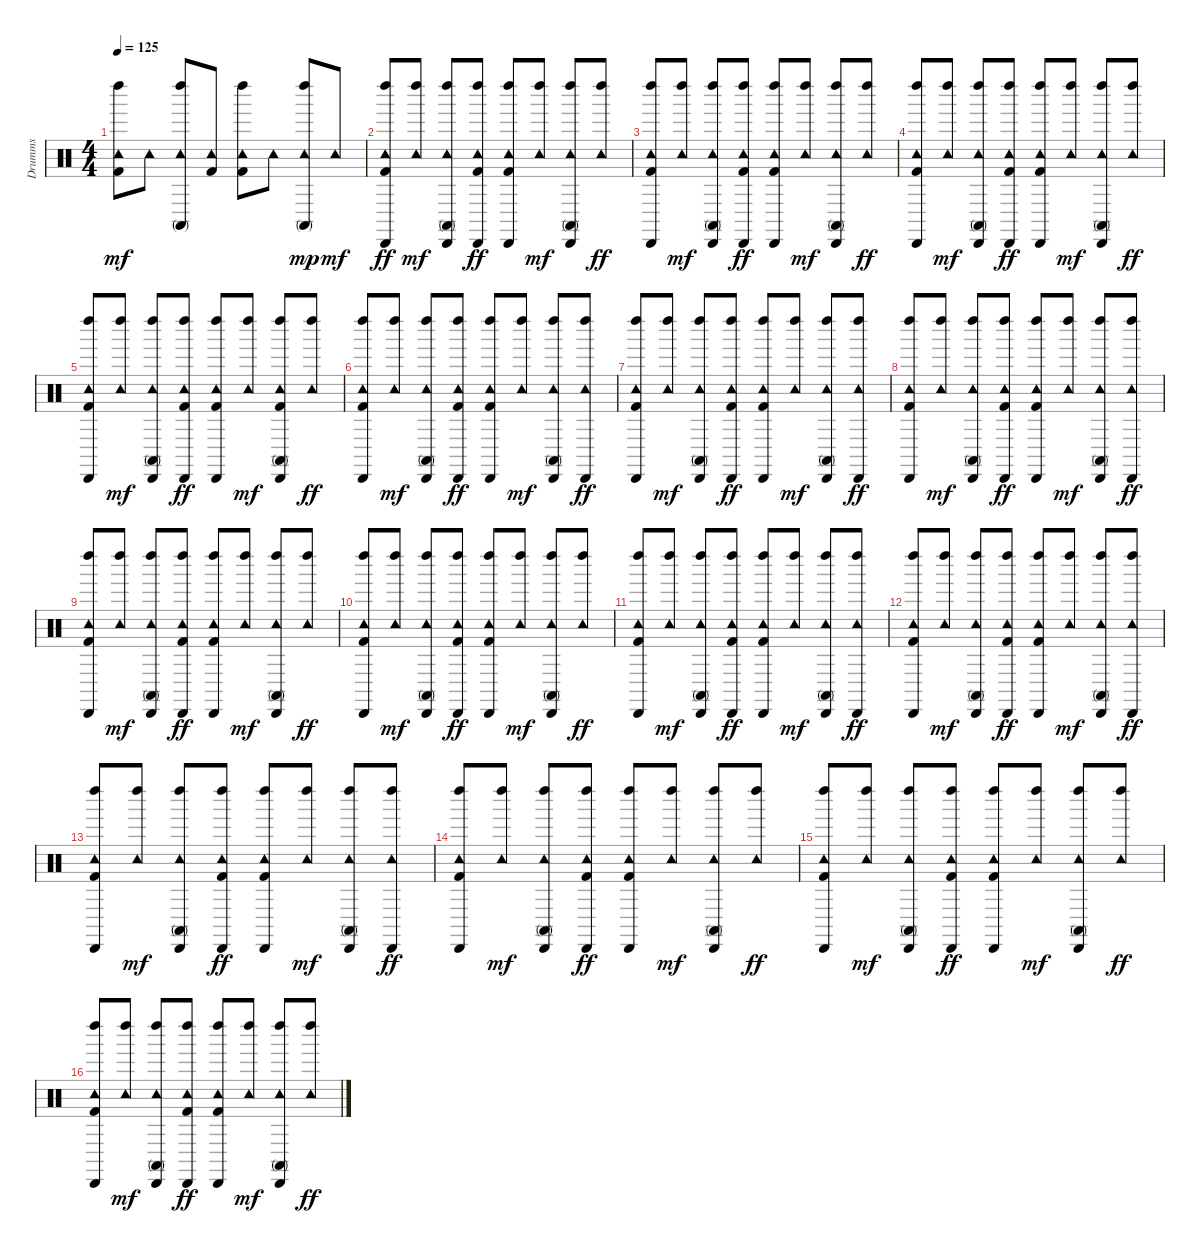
\track ("Drumms" "Drumms") {instrument percussion}
\staff {score}
\articulation defaults
\ts (4 4)
\tempo 125
\clef neutral
\ks c
("Kick (hit) 2" "Tambourine (hit)" "Left Maraca (hit)").8{dy mf} "Tambourine (hit)".8 ("Conga high (mute)" "Tambourine (hit)" "Left Maraca (hit)").8 ("Kick (hit) 2" "Tambourine (hit)").8 ("Kick (hit) 2" "Tambourine (hit)" "Left Maraca (hit)").8 "Tambourine (hit)".8 ("Conga high (mute)" "Tambourine (hit)" "Left Maraca (hit)").8{dy mp} "Tambourine (hit)".8{dy mf} |
("Kick (hit) 2" "Tambourine (hit)" "Cabasa (hit)" "Left Maraca (hit)").8{dy ff} ("Tambourine (hit)" "Left Maraca (hit)").8{dy mf} ("Conga high (mute)" "Tambourine (hit)" "Cabasa (hit)" "Left Maraca (hit)").8 ("Kick (hit) 2" "Tambourine (hit)" "Cabasa (hit)" "Left Maraca (hit)").8{dy ff} ("Kick (hit) 2" "Tambourine (hit)" "Cabasa (hit)" "Left Maraca (hit)").8 ("Tambourine (hit)" "Left Maraca (hit)").8{dy mf} ("Conga high (mute)" "Tambourine (hit)" "Cabasa (hit)" "Left Maraca (hit)").8 ("Tambourine (hit)" "Left Maraca (hit)").8{dy ff} |
("Kick (hit) 2" "Tambourine (hit)" "Cabasa (hit)" "Left Maraca (hit)").8 ("Tambourine (hit)" "Left Maraca (hit)").8{dy mf} ("Conga high (mute)" "Tambourine (hit)" "Cabasa (hit)" "Left Maraca (hit)").8 ("Kick (hit) 2" "Tambourine (hit)" "Cabasa (hit)" "Left Maraca (hit)").8{dy ff} ("Kick (hit) 2" "Tambourine (hit)" "Cabasa (hit)" "Left Maraca (hit)").8 ("Tambourine (hit)" "Left Maraca (hit)").8{dy mf} ("Conga high (mute)" "Tambourine (hit)" "Cabasa (hit)" "Left Maraca (hit)").8 ("Tambourine (hit)" "Left Maraca (hit)").8{dy ff} |
("Kick (hit) 2" "Tambourine (hit)" "Cabasa (hit)" "Left Maraca (hit)").8 ("Tambourine (hit)" "Left Maraca (hit)").8{dy mf} ("Conga high (mute)" "Tambourine (hit)" "Cabasa (hit)" "Left Maraca (hit)").8 ("Kick (hit) 2" "Tambourine (hit)" "Cabasa (hit)" "Left Maraca (hit)").8{dy ff} ("Kick (hit) 2" "Tambourine (hit)" "Cabasa (hit)" "Left Maraca (hit)").8 ("Tambourine (hit)" "Left Maraca (hit)").8{dy mf} ("Conga high (mute)" "Tambourine (hit)" "Cabasa (hit)" "Left Maraca (hit)").8 ("Tambourine (hit)" "Left Maraca (hit)").8{dy ff} |
("Kick (hit) 2" "Tambourine (hit)" "Cabasa (hit)" "Left Maraca (hit)").8 ("Tambourine (hit)" "Left Maraca (hit)").8{dy mf} ("Conga high (mute)" "Tambourine (hit)" "Cabasa (hit)" "Left Maraca (hit)").8 ("Kick (hit) 2" "Tambourine (hit)" "Cabasa (hit)" "Left Maraca (hit)").8{dy ff} ("Kick (hit) 2" "Tambourine (hit)" "Cabasa (hit)" "Left Maraca (hit)").8 ("Tambourine (hit)" "Left Maraca (hit)").8{dy mf} ("Conga high (mute)" "Tambourine (hit)" "Cabasa (hit)" "Left Maraca (hit)" "Kick (hit) 2").8 ("Tambourine (hit)" "Left Maraca (hit)").8{dy ff} |
("Kick (hit) 2" "Tambourine (hit)" "Cabasa (hit)" "Left Maraca (hit)").8 ("Tambourine (hit)" "Left Maraca (hit)").8{dy mf} ("Conga high (mute)" "Tambourine (hit)" "Cabasa (hit)" "Left Maraca (hit)").8 ("Kick (hit) 2" "Tambourine (hit)" "Cabasa (hit)" "Left Maraca (hit)").8{dy ff} ("Kick (hit) 2" "Tambourine (hit)" "Cabasa (hit)" "Left Maraca (hit)").8 ("Tambourine (hit)" "Left Maraca (hit)").8{dy mf} ("Conga high (mute)" "Tambourine (hit)" "Cabasa (hit)" "Left Maraca (hit)").8 ("Tambourine (hit)" "Left Maraca (hit)" "Cabasa (hit)").8{dy ff} |
("Kick (hit) 2" "Tambourine (hit)" "Cabasa (hit)" "Left Maraca (hit)").8 ("Tambourine (hit)" "Left Maraca (hit)").8{dy mf} ("Conga high (mute)" "Tambourine (hit)" "Cabasa (hit)" "Left Maraca (hit)").8 ("Kick (hit) 2" "Tambourine (hit)" "Cabasa (hit)" "Left Maraca (hit)").8{dy ff} ("Kick (hit) 2" "Tambourine (hit)" "Cabasa (hit)" "Left Maraca (hit)").8 ("Tambourine (hit)" "Left Maraca (hit)").8{dy mf} ("Conga high (mute)" "Tambourine (hit)" "Cabasa (hit)" "Left Maraca (hit)").8 ("Tambourine (hit)" "Left Maraca (hit)" "Cabasa (hit)").8{dy ff} |
("Kick (hit) 2" "Tambourine (hit)" "Cabasa (hit)" "Left Maraca (hit)").8 ("Tambourine (hit)" "Left Maraca (hit)").8{dy mf} ("Conga high (mute)" "Tambourine (hit)" "Cabasa (hit)" "Left Maraca (hit)").8 ("Kick (hit) 2" "Tambourine (hit)" "Cabasa (hit)" "Left Maraca (hit)").8{dy ff} ("Kick (hit) 2" "Tambourine (hit)" "Cabasa (hit)" "Left Maraca (hit)").8 ("Tambourine (hit)" "Left Maraca (hit)").8{dy mf} ("Conga high (mute)" "Tambourine (hit)" "Cabasa (hit)" "Left Maraca (hit)").8 ("Tambourine (hit)" "Left Maraca (hit)" "Cabasa (hit)").8{dy ff} |
("Kick (hit) 2" "Tambourine (hit)" "Cabasa (hit)" "Left Maraca (hit)").8 ("Tambourine (hit)" "Left Maraca (hit)").8{dy mf} ("Conga high (mute)" "Tambourine (hit)" "Cabasa (hit)" "Left Maraca (hit)").8 ("Kick (hit) 2" "Tambourine (hit)" "Cabasa (hit)" "Left Maraca (hit)").8{dy ff} ("Kick (hit) 2" "Tambourine (hit)" "Cabasa (hit)" "Left Maraca (hit)").8 ("Tambourine (hit)" "Left Maraca (hit)").8{dy mf} ("Conga high (mute)" "Tambourine (hit)" "Cabasa (hit)" "Left Maraca (hit)").8 ("Tambourine (hit)" "Left Maraca (hit)").8{dy ff} |
("Kick (hit) 2" "Tambourine (hit)" "Cabasa (hit)" "Left Maraca (hit)").8 ("Tambourine (hit)" "Left Maraca (hit)").8{dy mf} ("Conga high (mute)" "Tambourine (hit)" "Cabasa (hit)" "Left Maraca (hit)").8 ("Kick (hit) 2" "Tambourine (hit)" "Cabasa (hit)" "Left Maraca (hit)").8{dy ff} ("Kick (hit) 2" "Tambourine (hit)" "Cabasa (hit)" "Left Maraca (hit)").8 ("Tambourine (hit)" "Left Maraca (hit)").8{dy mf} ("Conga high (mute)" "Tambourine (hit)" "Cabasa (hit)" "Left Maraca (hit)").8 ("Tambourine (hit)" "Left Maraca (hit)").8{dy ff} |
("Kick (hit) 2" "Tambourine (hit)" "Cabasa (hit)" "Left Maraca (hit)").8 ("Tambourine (hit)" "Left Maraca (hit)").8{dy mf} ("Conga high (mute)" "Tambourine (hit)" "Cabasa (hit)" "Left Maraca (hit)").8 ("Kick (hit) 2" "Tambourine (hit)" "Cabasa (hit)" "Left Maraca (hit)").8{dy ff} ("Kick (hit) 2" "Tambourine (hit)" "Cabasa (hit)" "Left Maraca (hit)").8 ("Tambourine (hit)" "Left Maraca (hit)").8{dy mf} ("Conga high (mute)" "Tambourine (hit)" "Cabasa (hit)" "Left Maraca (hit)").8 ("Tambourine (hit)" "Left Maraca (hit)" "Cabasa (hit)").8{dy ff} |
("Kick (hit) 2" "Tambourine (hit)" "Cabasa (hit)" "Left Maraca (hit)").8 ("Tambourine (hit)" "Left Maraca (hit)").8{dy mf} ("Conga high (mute)" "Tambourine (hit)" "Cabasa (hit)" "Left Maraca (hit)").8 ("Kick (hit) 2" "Tambourine (hit)" "Cabasa (hit)" "Left Maraca (hit)").8{dy ff} ("Kick (hit) 2" "Tambourine (hit)" "Cabasa (hit)" "Left Maraca (hit)").8 ("Tambourine (hit)" "Left Maraca (hit)").8{dy mf} ("Conga high (mute)" "Tambourine (hit)" "Cabasa (hit)" "Left Maraca (hit)").8 ("Tambourine (hit)" "Left Maraca (hit)" "Cabasa (hit)").8{dy ff} |
("Kick (hit) 2" "Tambourine (hit)" "Cabasa (hit)" "Left Maraca (hit)").8 ("Tambourine (hit)" "Left Maraca (hit)").8{dy mf} ("Conga high (mute)" "Tambourine (hit)" "Cabasa (hit)" "Left Maraca (hit)").8 ("Kick (hit) 2" "Tambourine (hit)" "Cabasa (hit)" "Left Maraca (hit)").8{dy ff} ("Kick (hit) 2" "Tambourine (hit)" "Cabasa (hit)" "Left Maraca (hit)").8 ("Tambourine (hit)" "Left Maraca (hit)").8{dy mf} ("Conga high (mute)" "Tambourine (hit)" "Cabasa (hit)" "Left Maraca (hit)").8 ("Tambourine (hit)" "Left Maraca (hit)" "Cabasa (hit)").8{dy ff} |
("Kick (hit) 2" "Tambourine (hit)" "Cabasa (hit)" "Left Maraca (hit)").8 ("Tambourine (hit)" "Left Maraca (hit)").8{dy mf} ("Conga high (mute)" "Tambourine (hit)" "Cabasa (hit)" "Left Maraca (hit)").8 ("Kick (hit) 2" "Tambourine (hit)" "Cabasa (hit)" "Left Maraca (hit)").8{dy ff} ("Kick (hit) 2" "Tambourine (hit)" "Cabasa (hit)" "Left Maraca (hit)").8 ("Tambourine (hit)" "Left Maraca (hit)").8{dy mf} ("Conga high (mute)" "Tambourine (hit)" "Cabasa (hit)" "Left Maraca (hit)").8 ("Tambourine (hit)" "Left Maraca (hit)").8{dy ff} |
("Kick (hit) 2" "Tambourine (hit)" "Cabasa (hit)" "Left Maraca (hit)").8 ("Tambourine (hit)" "Left Maraca (hit)").8{dy mf} ("Conga high (mute)" "Tambourine (hit)" "Cabasa (hit)" "Left Maraca (hit)").8 ("Kick (hit) 2" "Tambourine (hit)" "Cabasa (hit)" "Left Maraca (hit)").8{dy ff} ("Kick (hit) 2" "Tambourine (hit)" "Cabasa (hit)" "Left Maraca (hit)").8 ("Tambourine (hit)" "Left Maraca (hit)").8{dy mf} ("Conga high (mute)" "Tambourine (hit)" "Cabasa (hit)" "Left Maraca (hit)").8 ("Tambourine (hit)" "Left Maraca (hit)").8{dy ff} |
("Kick (hit) 2" "Tambourine (hit)" "Cabasa (hit)" "Left Maraca (hit)").8 ("Tambourine (hit)" "Left Maraca (hit)").8{dy mf} ("Conga high (mute)" "Tambourine (hit)" "Cabasa (hit)" "Left Maraca (hit)").8 ("Kick (hit) 2" "Tambourine (hit)" "Cabasa (hit)" "Left Maraca (hit)").8{dy ff} ("Kick (hit) 2" "Tambourine (hit)" "Cabasa (hit)" "Left Maraca (hit)").8 ("Tambourine (hit)" "Left Maraca (hit)").8{dy mf} ("Conga high (mute)" "Tambourine (hit)" "Cabasa (hit)" "Left Maraca (hit)").8 ("Tambourine (hit)" "Left Maraca (hit)").8{dy ff}
